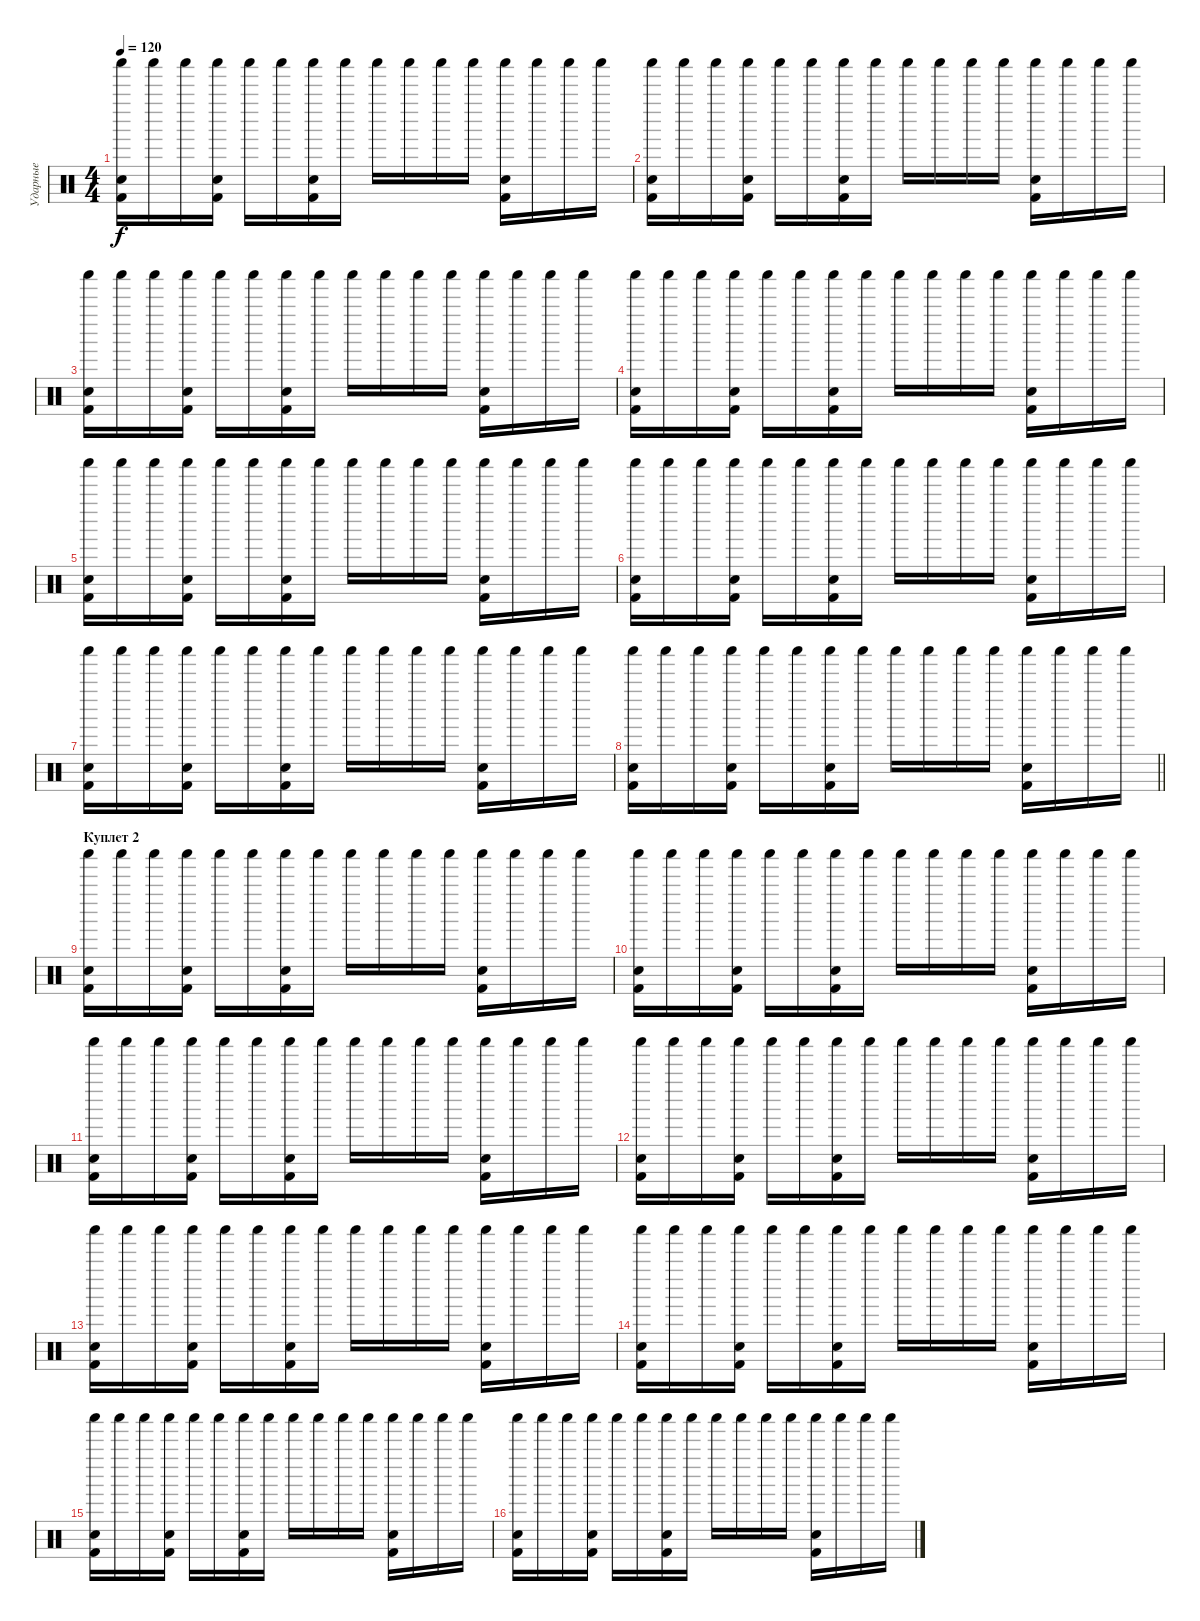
\track ("Ударные" "Ударные") {instrument percussion}
\staff {score}
\articulation defaults
\ts (4 4)
\tempo 120
\clef neutral
\ks c
("Electric Snare (hit)" "Kick (hit) 2" "Shaker (hit)").16{dy f} "Shaker (hit)".16 "Shaker (hit)".16 ("Electric Snare (hit)" "Kick (hit) 2" "Shaker (hit)").16 "Shaker (hit)".16 "Shaker (hit)".16 ("Electric Snare (hit)" "Kick (hit) 2" "Shaker (hit)").16 "Shaker (hit)".16 "Shaker (hit)".16 "Shaker (hit)".16 "Shaker (hit)".16 "Shaker (hit)".16 ("Electric Snare (hit)" "Kick (hit) 2" "Shaker (hit)").16 "Shaker (hit)".16 "Shaker (hit)".16 "Shaker (hit)".16 |
("Electric Snare (hit)" "Kick (hit) 2" "Shaker (hit)").16 "Shaker (hit)".16 "Shaker (hit)".16 ("Electric Snare (hit)" "Kick (hit) 2" "Shaker (hit)").16 "Shaker (hit)".16 "Shaker (hit)".16 ("Electric Snare (hit)" "Kick (hit) 2" "Shaker (hit)").16 "Shaker (hit)".16 "Shaker (hit)".16 "Shaker (hit)".16 "Shaker (hit)".16 "Shaker (hit)".16 ("Electric Snare (hit)" "Kick (hit) 2" "Shaker (hit)").16 "Shaker (hit)".16 "Shaker (hit)".16 "Shaker (hit)".16 |
("Electric Snare (hit)" "Kick (hit) 2" "Shaker (hit)").16 "Shaker (hit)".16 "Shaker (hit)".16 ("Electric Snare (hit)" "Kick (hit) 2" "Shaker (hit)").16 "Shaker (hit)".16 "Shaker (hit)".16 ("Electric Snare (hit)" "Kick (hit) 2" "Shaker (hit)").16 "Shaker (hit)".16 "Shaker (hit)".16 "Shaker (hit)".16 "Shaker (hit)".16 "Shaker (hit)".16 ("Electric Snare (hit)" "Kick (hit) 2" "Shaker (hit)").16 "Shaker (hit)".16 "Shaker (hit)".16 "Shaker (hit)".16 |
("Electric Snare (hit)" "Kick (hit) 2" "Shaker (hit)").16 "Shaker (hit)".16 "Shaker (hit)".16 ("Electric Snare (hit)" "Kick (hit) 2" "Shaker (hit)").16 "Shaker (hit)".16 "Shaker (hit)".16 ("Electric Snare (hit)" "Kick (hit) 2" "Shaker (hit)").16 "Shaker (hit)".16 "Shaker (hit)".16 "Shaker (hit)".16 "Shaker (hit)".16 "Shaker (hit)".16 ("Electric Snare (hit)" "Kick (hit) 2" "Shaker (hit)").16 "Shaker (hit)".16 "Shaker (hit)".16 "Shaker (hit)".16 |
("Electric Snare (hit)" "Kick (hit) 2" "Shaker (hit)").16 "Shaker (hit)".16 "Shaker (hit)".16 ("Electric Snare (hit)" "Kick (hit) 2" "Shaker (hit)").16 "Shaker (hit)".16 "Shaker (hit)".16 ("Electric Snare (hit)" "Kick (hit) 2" "Shaker (hit)").16 "Shaker (hit)".16 "Shaker (hit)".16 "Shaker (hit)".16 "Shaker (hit)".16 "Shaker (hit)".16 ("Electric Snare (hit)" "Kick (hit) 2" "Shaker (hit)").16 "Shaker (hit)".16 "Shaker (hit)".16 "Shaker (hit)".16 |
("Electric Snare (hit)" "Kick (hit) 2" "Shaker (hit)").16 "Shaker (hit)".16 "Shaker (hit)".16 ("Electric Snare (hit)" "Kick (hit) 2" "Shaker (hit)").16 "Shaker (hit)".16 "Shaker (hit)".16 ("Electric Snare (hit)" "Kick (hit) 2" "Shaker (hit)").16 "Shaker (hit)".16 "Shaker (hit)".16 "Shaker (hit)".16 "Shaker (hit)".16 "Shaker (hit)".16 ("Electric Snare (hit)" "Kick (hit) 2" "Shaker (hit)").16 "Shaker (hit)".16 "Shaker (hit)".16 "Shaker (hit)".16 |
("Electric Snare (hit)" "Kick (hit) 2" "Shaker (hit)").16 "Shaker (hit)".16 "Shaker (hit)".16 ("Electric Snare (hit)" "Kick (hit) 2" "Shaker (hit)").16 "Shaker (hit)".16 "Shaker (hit)".16 ("Electric Snare (hit)" "Kick (hit) 2" "Shaker (hit)").16 "Shaker (hit)".16 "Shaker (hit)".16 "Shaker (hit)".16 "Shaker (hit)".16 "Shaker (hit)".16 ("Electric Snare (hit)" "Kick (hit) 2" "Shaker (hit)").16 "Shaker (hit)".16 "Shaker (hit)".16 "Shaker (hit)".16 |
\barLineRight lightlight
("Electric Snare (hit)" "Kick (hit) 2" "Shaker (hit)").16 "Shaker (hit)".16 "Shaker (hit)".16 ("Electric Snare (hit)" "Kick (hit) 2" "Shaker (hit)").16 "Shaker (hit)".16 "Shaker (hit)".16 ("Electric Snare (hit)" "Kick (hit) 2" "Shaker (hit)").16 "Shaker (hit)".16 "Shaker (hit)".16 "Shaker (hit)".16 "Shaker (hit)".16 "Shaker (hit)".16 ("Electric Snare (hit)" "Kick (hit) 2" "Shaker (hit)").16 "Shaker (hit)".16 "Shaker (hit)".16 "Shaker (hit)".16 |
\section ("" "Куплет 2")
("Electric Snare (hit)" "Kick (hit) 2" "Shaker (hit)").16 "Shaker (hit)".16 "Shaker (hit)".16 ("Electric Snare (hit)" "Kick (hit) 2" "Shaker (hit)").16 "Shaker (hit)".16 "Shaker (hit)".16 ("Electric Snare (hit)" "Kick (hit) 2" "Shaker (hit)").16 "Shaker (hit)".16 "Shaker (hit)".16 "Shaker (hit)".16 "Shaker (hit)".16 "Shaker (hit)".16 ("Electric Snare (hit)" "Kick (hit) 2" "Shaker (hit)").16 "Shaker (hit)".16 "Shaker (hit)".16 "Shaker (hit)".16 |
("Electric Snare (hit)" "Kick (hit) 2" "Shaker (hit)").16 "Shaker (hit)".16 "Shaker (hit)".16 ("Electric Snare (hit)" "Kick (hit) 2" "Shaker (hit)").16 "Shaker (hit)".16 "Shaker (hit)".16 ("Electric Snare (hit)" "Kick (hit) 2" "Shaker (hit)").16 "Shaker (hit)".16 "Shaker (hit)".16 "Shaker (hit)".16 "Shaker (hit)".16 "Shaker (hit)".16 ("Electric Snare (hit)" "Kick (hit) 2" "Shaker (hit)").16 "Shaker (hit)".16 "Shaker (hit)".16 "Shaker (hit)".16 |
("Electric Snare (hit)" "Kick (hit) 2" "Shaker (hit)").16 "Shaker (hit)".16 "Shaker (hit)".16 ("Electric Snare (hit)" "Kick (hit) 2" "Shaker (hit)").16 "Shaker (hit)".16 "Shaker (hit)".16 ("Electric Snare (hit)" "Kick (hit) 2" "Shaker (hit)").16 "Shaker (hit)".16 "Shaker (hit)".16 "Shaker (hit)".16 "Shaker (hit)".16 "Shaker (hit)".16 ("Electric Snare (hit)" "Kick (hit) 2" "Shaker (hit)").16 "Shaker (hit)".16 "Shaker (hit)".16 "Shaker (hit)".16 |
("Electric Snare (hit)" "Kick (hit) 2" "Shaker (hit)").16 "Shaker (hit)".16 "Shaker (hit)".16 ("Electric Snare (hit)" "Kick (hit) 2" "Shaker (hit)").16 "Shaker (hit)".16 "Shaker (hit)".16 ("Electric Snare (hit)" "Kick (hit) 2" "Shaker (hit)").16 "Shaker (hit)".16 "Shaker (hit)".16 "Shaker (hit)".16 "Shaker (hit)".16 "Shaker (hit)".16 ("Electric Snare (hit)" "Kick (hit) 2" "Shaker (hit)").16 "Shaker (hit)".16 "Shaker (hit)".16 "Shaker (hit)".16 |
("Electric Snare (hit)" "Kick (hit) 2" "Shaker (hit)").16 "Shaker (hit)".16 "Shaker (hit)".16 ("Electric Snare (hit)" "Kick (hit) 2" "Shaker (hit)").16 "Shaker (hit)".16 "Shaker (hit)".16 ("Electric Snare (hit)" "Kick (hit) 2" "Shaker (hit)").16 "Shaker (hit)".16 "Shaker (hit)".16 "Shaker (hit)".16 "Shaker (hit)".16 "Shaker (hit)".16 ("Electric Snare (hit)" "Kick (hit) 2" "Shaker (hit)").16 "Shaker (hit)".16 "Shaker (hit)".16 "Shaker (hit)".16 |
("Electric Snare (hit)" "Kick (hit) 2" "Shaker (hit)").16 "Shaker (hit)".16 "Shaker (hit)".16 ("Electric Snare (hit)" "Kick (hit) 2" "Shaker (hit)").16 "Shaker (hit)".16 "Shaker (hit)".16 ("Electric Snare (hit)" "Kick (hit) 2" "Shaker (hit)").16 "Shaker (hit)".16 "Shaker (hit)".16 "Shaker (hit)".16 "Shaker (hit)".16 "Shaker (hit)".16 ("Electric Snare (hit)" "Kick (hit) 2" "Shaker (hit)").16 "Shaker (hit)".16 "Shaker (hit)".16 "Shaker (hit)".16 |
("Electric Snare (hit)" "Kick (hit) 2" "Shaker (hit)").16 "Shaker (hit)".16 "Shaker (hit)".16 ("Electric Snare (hit)" "Kick (hit) 2" "Shaker (hit)").16 "Shaker (hit)".16 "Shaker (hit)".16 ("Electric Snare (hit)" "Kick (hit) 2" "Shaker (hit)").16 "Shaker (hit)".16 "Shaker (hit)".16 "Shaker (hit)".16 "Shaker (hit)".16 "Shaker (hit)".16 ("Electric Snare (hit)" "Kick (hit) 2" "Shaker (hit)").16 "Shaker (hit)".16 "Shaker (hit)".16 "Shaker (hit)".16 |
("Electric Snare (hit)" "Kick (hit) 2" "Shaker (hit)").16 "Shaker (hit)".16 "Shaker (hit)".16 ("Electric Snare (hit)" "Kick (hit) 2" "Shaker (hit)").16 "Shaker (hit)".16 "Shaker (hit)".16 ("Electric Snare (hit)" "Kick (hit) 2" "Shaker (hit)").16 "Shaker (hit)".16 "Shaker (hit)".16 "Shaker (hit)".16 "Shaker (hit)".16 "Shaker (hit)".16 ("Electric Snare (hit)" "Kick (hit) 2" "Shaker (hit)").16 "Shaker (hit)".16 "Shaker (hit)".16 "Shaker (hit)".16
